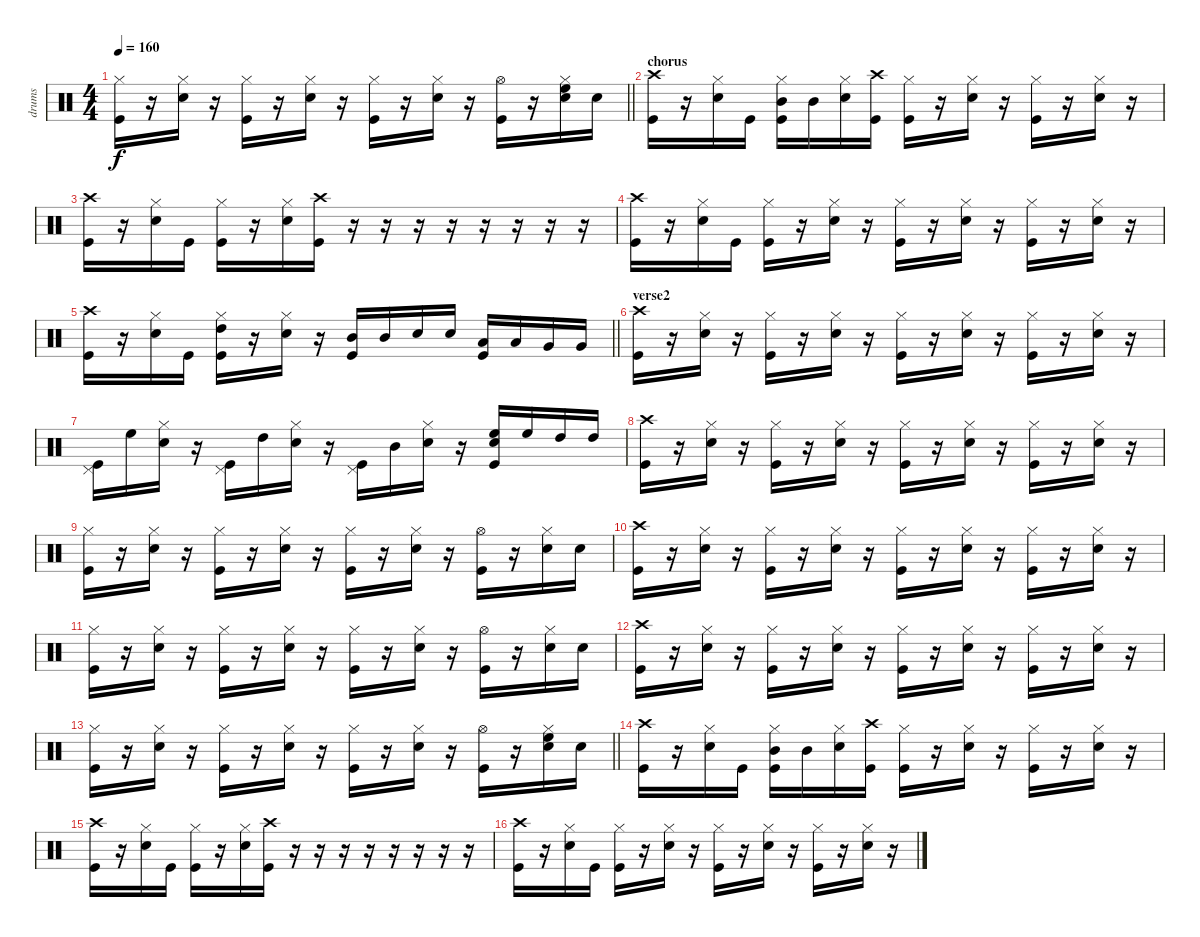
\track ("drums" "drums") {instrument percussion}
\staff {score}
\articulation defaults
\ts (4 4)
\tempo 160
\clef neutral
\barLineRight lightlight
\ks c
("Hi-Hat (closed)" "Kick (hit)").16{dy f} r.16 ("Hi-Hat (closed)" "Electric Snare (hit)").16 r.16 ("Hi-Hat (closed)" "Kick (hit)").16 r.16 ("Hi-Hat (closed)" "Electric Snare (hit)").16 r.16 ("Hi-Hat (closed)" "Kick (hit)").16 r.16 ("Hi-Hat (closed)" "Electric Snare (hit)").16 r.16 ("Hi-Hat (open)" "Kick (hit)").16 r.16 ("Hi-Hat (closed)" "High Floor Tom (hit)" "Electric Snare (hit)").16 "Electric Snare (hit)".16 |
\section ("" "chorus")
("Crash high (hit)" "Kick (hit)").16 r.16 ("Hi-Hat (closed)" "Electric Snare (hit)").16 "Kick (hit)".16 ("Hi-Hat (closed)" "Mid Tom (hit)" "Kick (hit)").16 "Mid Tom (hit)".16 ("Hi-Hat (closed)" "Electric Snare (hit)").16 ("Crash high (hit)" "Kick (hit)").16 ("Hi-Hat (closed)" "Kick (hit)").16 r.16 ("Hi-Hat (closed)" "Electric Snare (hit)").16 r.16 ("Hi-Hat (closed)" "Kick (hit)").16 r.16 ("Hi-Hat (closed)" "Electric Snare (hit)").16 r.16 |
("Crash high (hit)" "Kick (hit)").16 r.16 ("Hi-Hat (closed)" "Electric Snare (hit)").16 "Kick (hit)".16 ("Hi-Hat (closed)" "Kick (hit)").16 r.16 ("Hi-Hat (closed)" "Electric Snare (hit)").16 ("Crash high (hit)" "Kick (hit)").16 r.16 r.16 r.16 r.16 r.16 r.16 r.16 r.16 |
("Crash high (hit)" "Kick (hit)").16 r.16 ("Hi-Hat (closed)" "Electric Snare (hit)").16 "Kick (hit)".16 ("Hi-Hat (closed)" "Kick (hit)").16 r.16 ("Hi-Hat (closed)" "Electric Snare (hit)").16 r.16 ("Hi-Hat (closed)" "Kick (hit)").16 r.16 ("Hi-Hat (closed)" "Electric Snare (hit)").16 r.16 ("Hi-Hat (closed)" "Kick (hit)").16 r.16 ("Hi-Hat (closed)" "Electric Snare (hit)").16 r.16 |
\barLineRight lightlight
("Crash high (hit)" "Kick (hit)").16 r.16 ("Hi-Hat (closed)" "Electric Snare (hit)").16 "Kick (hit)".16 ("Hi-Hat (closed)" "High Tom (hit)" "Kick (hit)").16 r.16 ("Hi-Hat (closed)" "Electric Snare (hit)").16 r.16 ("Mid Tom (hit)" "Kick (hit)").16 "Mid Tom (hit)".16 "Electric Snare (hit)".16 "Electric Snare (hit)".16 ("Low Tom (hit)" "Kick (hit)").16 "Low Tom (hit)".16 "Very Low Tom (hit)".16 "Very Low Tom (hit)".16 |
\section ("" "verse2")
("Crash high (hit)" "Kick (hit)").16 r.16 ("Hi-Hat (closed)" "Electric Snare (hit)").16 r.16 ("Hi-Hat (closed)" "Kick (hit)").16 r.16 ("Hi-Hat (closed)" "Electric Snare (hit)").16 r.16 ("Hi-Hat (closed)" "Kick (hit)").16 r.16 ("Hi-Hat (closed)" "Electric Snare (hit)").16 r.16 ("Hi-Hat (closed)" "Kick (hit)").16 r.16 ("Hi-Hat (closed)" "Electric Snare (hit)").16 r.16 |
("Pedal Hi-Hat (hit)" "Kick (hit)").16 "High Floor Tom (hit)".16 ("Hi-Hat (closed)" "Electric Snare (hit)").16 r.16 ("Pedal Hi-Hat (hit)" "Kick (hit)").16 "High Tom (hit)".16 ("Hi-Hat (closed)" "Electric Snare (hit)").16 r.16 ("Pedal Hi-Hat (hit)" "Kick (hit)").16 "Mid Tom (hit)".16 ("Hi-Hat (closed)" "Electric Snare (hit)").16 r.16 ("Electric Snare (hit)" "High Floor Tom (hit)" "Kick (hit)").16 "High Floor Tom (hit)".16 "High Tom (hit)".16 "High Tom (hit)".16 |
("Crash high (hit)" "Kick (hit)").16 r.16 ("Hi-Hat (closed)" "Electric Snare (hit)").16 r.16 ("Hi-Hat (closed)" "Kick (hit)").16 r.16 ("Hi-Hat (closed)" "Electric Snare (hit)").16 r.16 ("Hi-Hat (closed)" "Kick (hit)").16 r.16 ("Hi-Hat (closed)" "Electric Snare (hit)").16 r.16 ("Hi-Hat (closed)" "Kick (hit)").16 r.16 ("Hi-Hat (closed)" "Electric Snare (hit)").16 r.16 |
("Hi-Hat (closed)" "Kick (hit)").16 r.16 ("Hi-Hat (closed)" "Electric Snare (hit)").16 r.16 ("Hi-Hat (closed)" "Kick (hit)").16 r.16 ("Hi-Hat (closed)" "Electric Snare (hit)").16 r.16 ("Hi-Hat (closed)" "Kick (hit)").16 r.16 ("Hi-Hat (closed)" "Electric Snare (hit)").16 r.16 ("Hi-Hat (open)" "Kick (hit)").16 r.16 ("Hi-Hat (closed)" "Electric Snare (hit)").16 "Electric Snare (hit)".16 |
("Crash high (hit)" "Kick (hit)").16 r.16 ("Hi-Hat (closed)" "Electric Snare (hit)").16 r.16 ("Hi-Hat (closed)" "Kick (hit)").16 r.16 ("Hi-Hat (closed)" "Electric Snare (hit)").16 r.16 ("Hi-Hat (closed)" "Kick (hit)").16 r.16 ("Hi-Hat (closed)" "Electric Snare (hit)").16 r.16 ("Hi-Hat (closed)" "Kick (hit)").16 r.16 ("Hi-Hat (closed)" "Electric Snare (hit)").16 r.16 |
("Hi-Hat (closed)" "Kick (hit)").16 r.16 ("Hi-Hat (closed)" "Electric Snare (hit)").16 r.16 ("Hi-Hat (closed)" "Kick (hit)").16 r.16 ("Hi-Hat (closed)" "Electric Snare (hit)").16 r.16 ("Hi-Hat (closed)" "Kick (hit)").16 r.16 ("Hi-Hat (closed)" "Electric Snare (hit)").16 r.16 ("Hi-Hat (open)" "Kick (hit)").16 r.16 ("Hi-Hat (closed)" "Electric Snare (hit)").16 "Electric Snare (hit)".16 |
("Crash high (hit)" "Kick (hit)").16 r.16 ("Hi-Hat (closed)" "Electric Snare (hit)").16 r.16 ("Hi-Hat (closed)" "Kick (hit)").16 r.16 ("Hi-Hat (closed)" "Electric Snare (hit)").16 r.16 ("Hi-Hat (closed)" "Kick (hit)").16 r.16 ("Hi-Hat (closed)" "Electric Snare (hit)").16 r.16 ("Hi-Hat (closed)" "Kick (hit)").16 r.16 ("Hi-Hat (closed)" "Electric Snare (hit)").16 r.16 |
\barLineRight lightlight
("Hi-Hat (closed)" "Kick (hit)").16 r.16 ("Hi-Hat (closed)" "Electric Snare (hit)").16 r.16 ("Hi-Hat (closed)" "Kick (hit)").16 r.16 ("Hi-Hat (closed)" "Electric Snare (hit)").16 r.16 ("Hi-Hat (closed)" "Kick (hit)").16 r.16 ("Hi-Hat (closed)" "Electric Snare (hit)").16 r.16 ("Hi-Hat (open)" "Kick (hit)").16 r.16 ("Hi-Hat (closed)" "High Floor Tom (hit)" "Electric Snare (hit)").16 "Electric Snare (hit)".16 |
("Crash high (hit)" "Kick (hit)").16 r.16 ("Hi-Hat (closed)" "Electric Snare (hit)").16 "Kick (hit)".16 ("Hi-Hat (closed)" "Mid Tom (hit)" "Kick (hit)").16 "Mid Tom (hit)".16 ("Hi-Hat (closed)" "Electric Snare (hit)").16 ("Crash high (hit)" "Kick (hit)").16 ("Hi-Hat (closed)" "Kick (hit)").16 r.16 ("Hi-Hat (closed)" "Electric Snare (hit)").16 r.16 ("Hi-Hat (closed)" "Kick (hit)").16 r.16 ("Hi-Hat (closed)" "Electric Snare (hit)").16 r.16 |
("Crash high (hit)" "Kick (hit)").16 r.16 ("Hi-Hat (closed)" "Electric Snare (hit)").16 "Kick (hit)".16 ("Hi-Hat (closed)" "Kick (hit)").16 r.16 ("Hi-Hat (closed)" "Electric Snare (hit)").16 ("Crash high (hit)" "Kick (hit)").16 r.16 r.16 r.16 r.16 r.16 r.16 r.16 r.16 |
("Crash high (hit)" "Kick (hit)").16 r.16 ("Hi-Hat (closed)" "Electric Snare (hit)").16 "Kick (hit)".16 ("Hi-Hat (closed)" "Kick (hit)").16 r.16 ("Hi-Hat (closed)" "Electric Snare (hit)").16 r.16 ("Hi-Hat (closed)" "Kick (hit)").16 r.16 ("Hi-Hat (closed)" "Electric Snare (hit)").16 r.16 ("Hi-Hat (closed)" "Kick (hit)").16 r.16 ("Hi-Hat (closed)" "Electric Snare (hit)").16 r.16
